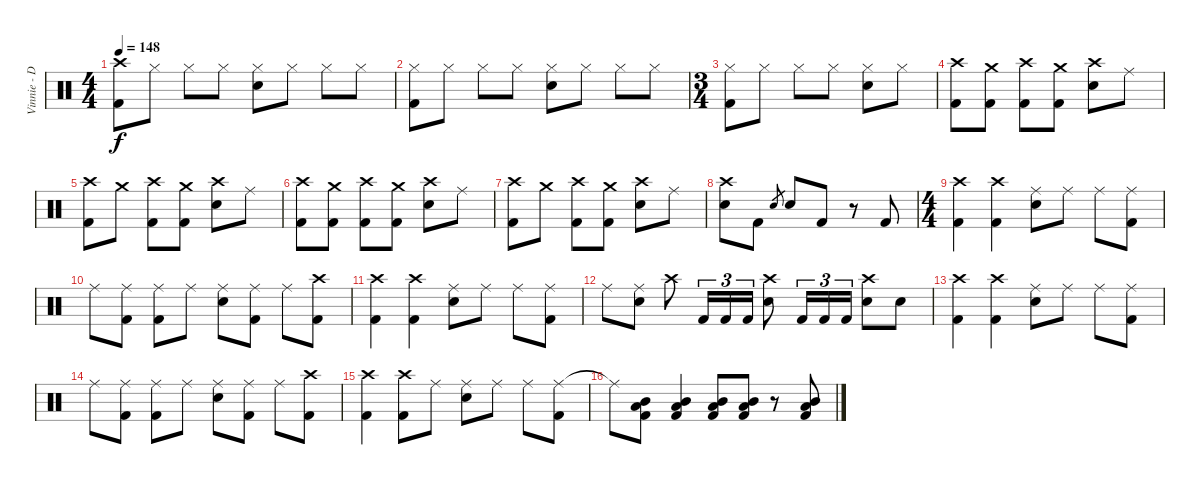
\track ("Vinnie - Drums" "Vinnie - D") {instrument percussion}
\staff {score}
\articulation defaults
\ts (4 4)
\tempo 148
\clef neutral
\ks c
("Crash high (hit)" "Kick (hit) 2").8{dy f} "Hi-Hat (closed)".8 "Hi-Hat (closed)".8 "Hi-Hat (closed)".8 ("Hi-Hat (closed)" "Electric Snare (hit)").8 "Hi-Hat (closed)".8 "Hi-Hat (closed)".8 "Hi-Hat (closed)".8 |
("Hi-Hat (closed)" "Kick (hit) 2").8 "Hi-Hat (closed)".8 "Hi-Hat (closed)".8 "Hi-Hat (closed)".8 ("Hi-Hat (closed)" "Electric Snare (hit)").8 "Hi-Hat (closed)".8 "Hi-Hat (closed)".8 "Hi-Hat (closed)".8 |
\ts (3 4)
("Hi-Hat (closed)" "Kick (hit) 2").8 "Hi-Hat (closed)".8 "Hi-Hat (closed)".8 "Hi-Hat (closed)".8 ("Hi-Hat (closed)" "Electric Snare (hit)").8 "Hi-Hat (closed)".8 |
("Crash high (hit)" "Kick (hit) 2").8 ("Crash medium (hit)" "Kick (hit) 2").8 ("Crash high (hit)" "Kick (hit) 2").8 ("Crash medium (hit)" "Kick (hit) 2").8 ("Crash high (hit)" "Electric Snare (hit)").8 "Ride (middle)".8 |
("Crash high (hit)" "Kick (hit) 2").8 "Crash medium (hit)".8 ("Crash high (hit)" "Kick (hit) 2").8 ("Crash medium (hit)" "Kick (hit) 2").8 ("Crash high (hit)" "Electric Snare (hit)").8 "Ride (middle)".8 |
("Crash high (hit)" "Kick (hit) 2").8 ("Crash medium (hit)" "Kick (hit) 2").8 ("Crash high (hit)" "Kick (hit) 2").8 ("Crash medium (hit)" "Kick (hit) 2").8 ("Crash high (hit)" "Electric Snare (hit)").8 "Ride (middle)".8 |
("Crash high (hit)" "Kick (hit) 2").8 "Crash medium (hit)".8 ("Crash high (hit)" "Kick (hit) 2").8 ("Crash medium (hit)" "Kick (hit) 2").8 ("Crash high (hit)" "Electric Snare (hit)").8 "Ride (middle)".8 |
("Crash high (hit)" "Electric Snare (hit)").8 "Kick (hit) 2".8 "Electric Snare (hit)".8{gr} "Electric Snare (hit)".8 "Kick (hit) 2".8 r.8 "Kick (hit) 2".8 |
\ts (4 4)
("Crash high (hit)" "Kick (hit) 2").4 ("Crash high (hit)" "Kick (hit) 2").4 ("Ride (middle)" "Electric Snare (hit)").8 "Ride (middle)".8 "Ride (middle)".8 ("Ride (middle)" "Kick (hit) 2").8 |
"Ride (middle)".8 ("Ride (middle)" "Kick (hit) 2").8 ("Ride (middle)" "Kick (hit) 2").8 "Ride (middle)".8 ("Ride (middle)" "Electric Snare (hit)").8 ("Ride (middle)" "Kick (hit) 2").8 "Ride (middle)".8 ("Crash high (hit)" "Kick (hit) 2").8 |
("Crash high (hit)" "Kick (hit) 2").4 ("Crash high (hit)" "Kick (hit) 2").4 ("Ride (middle)" "Electric Snare (hit)").8 "Ride (middle)".8 "Ride (middle)".8 ("Ride (middle)" "Kick (hit) 2").8 |
"Ride (middle)".8 ("Ride (middle)" "Electric Snare (hit)").8 "Crash high (hit)".8 "Kick (hit) 2".16{tu (3 2)} "Kick (hit) 2".16{tu (3 2)} "Kick (hit) 2".16{tu (3 2)} ("Crash high (hit)" "Electric Snare (hit)").8 "Kick (hit) 2".16{tu (3 2)} "Kick (hit) 2".16{tu (3 2)} "Kick (hit) 2".16{tu (3 2)} ("Crash high (hit)" "Electric Snare (hit)").8 "Electric Snare (hit)".8 |
("Crash high (hit)" "Kick (hit) 2").4 ("Crash high (hit)" "Kick (hit) 2").4 ("Ride (middle)" "Electric Snare (hit)").8 "Ride (middle)".8 "Ride (middle)".8 ("Ride (middle)" "Kick (hit) 2").8 |
"Ride (middle)".8 ("Ride (middle)" "Kick (hit) 2").8 ("Ride (middle)" "Kick (hit) 2").8 "Ride (middle)".8 ("Ride (middle)" "Electric Snare (hit)").8 ("Ride (middle)" "Kick (hit) 2").8 "Ride (middle)".8 ("Crash high (hit)" "Kick (hit) 2").8 |
("Crash high (hit)" "Kick (hit) 2").4 ("Crash high (hit)" "Kick (hit) 2").8 "Ride (middle)".8 ("Ride (middle)" "Electric Snare (hit)").8 "Ride (middle)".8 "Ride (middle)".8 ("Ride (middle)" "Kick (hit) 2").8 |
"Ride (middle)"{t}.8 ("Mid Tom (hit)" "Low Tom (hit)" "Kick (hit) 2").8 ("Mid Tom (hit)" "Low Tom (hit)" "Kick (hit) 2").4 ("Mid Tom (hit)" "Low Tom (hit)" "Kick (hit) 2").8 ("Mid Tom (hit)" "Low Tom (hit)" "Kick (hit) 2").8 r.8 ("Mid Tom (hit)" "Low Tom (hit)" "Kick (hit) 2").8
